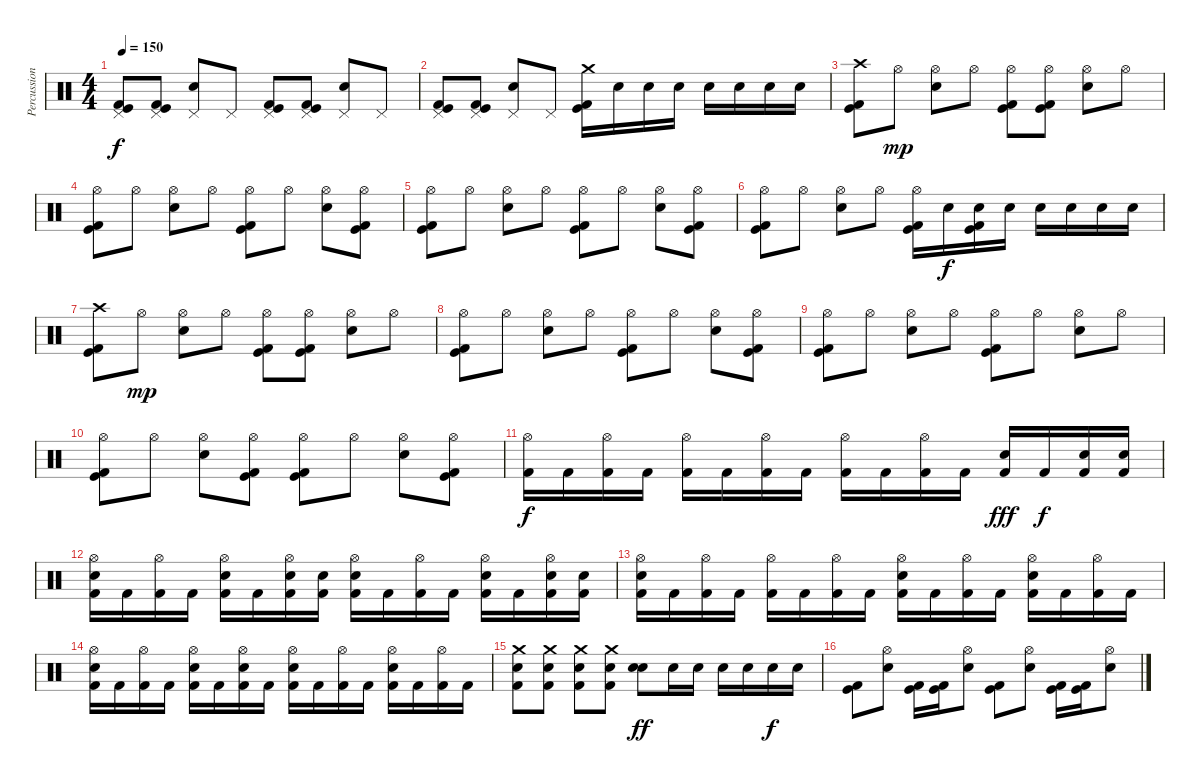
\track ("Percussions" "Percussion") {instrument percussion}
\staff {score}
\articulation defaults
\ts (4 4)
\tempo 150
\clef neutral
\ks c
("Pedal Hi-Hat (hit)" "Kick (hit)" "Kick (hit) 2").8{dy f} ("Pedal Hi-Hat (hit)" "Kick (hit)" "Kick (hit) 2").8 ("Pedal Hi-Hat (hit)" "Electric Snare (hit)").8 "Pedal Hi-Hat (hit)".8 ("Pedal Hi-Hat (hit)" "Kick (hit)" "Kick (hit) 2").8 ("Pedal Hi-Hat (hit)" "Kick (hit)" "Kick (hit) 2").8 ("Pedal Hi-Hat (hit)" "Electric Snare (hit)").8 "Pedal Hi-Hat (hit)".8 |
("Pedal Hi-Hat (hit)" "Kick (hit)" "Kick (hit) 2").8 ("Pedal Hi-Hat (hit)" "Kick (hit)" "Kick (hit) 2").8 ("Pedal Hi-Hat (hit)" "Electric Snare (hit)").8 "Pedal Hi-Hat (hit)".8 ("Crash medium (hit)" "Kick (hit)" "Kick (hit) 2").16 "Electric Snare (hit)".16 "Electric Snare (hit)".16 "Electric Snare (hit)".16 "Electric Snare (hit)".16 "Electric Snare (hit)".16 "Electric Snare (hit)".16 "Electric Snare (hit)".16 |
("Crash high (hit)" "Kick (hit)" "Kick (hit) 2").8 "Hi-Hat (open)".8{dy mp} ("Hi-Hat (open)" "Electric Snare (hit)").8 "Hi-Hat (open)".8 ("Hi-Hat (open)" "Kick (hit)" "Kick (hit) 2").8 ("Hi-Hat (open)" "Kick (hit)" "Kick (hit) 2").8 ("Hi-Hat (open)" "Electric Snare (hit)").8 "Hi-Hat (open)".8 |
("Hi-Hat (open)" "Kick (hit)" "Kick (hit) 2").8 "Hi-Hat (open)".8 ("Hi-Hat (open)" "Electric Snare (hit)").8 "Hi-Hat (open)".8 ("Hi-Hat (open)" "Kick (hit)" "Kick (hit) 2").8 "Hi-Hat (open)".8 ("Hi-Hat (open)" "Electric Snare (hit)").8 ("Hi-Hat (open)" "Kick (hit)" "Kick (hit) 2").8 |
("Hi-Hat (open)" "Kick (hit)" "Kick (hit) 2").8 "Hi-Hat (open)".8 ("Hi-Hat (open)" "Electric Snare (hit)").8 "Hi-Hat (open)".8 ("Hi-Hat (open)" "Kick (hit)" "Kick (hit) 2").8 "Hi-Hat (open)".8 ("Hi-Hat (open)" "Electric Snare (hit)").8 ("Hi-Hat (open)" "Kick (hit)" "Kick (hit) 2").8 |
("Hi-Hat (open)" "Kick (hit)" "Kick (hit) 2").8 "Hi-Hat (open)".8 ("Hi-Hat (open)" "Electric Snare (hit)").8 "Hi-Hat (open)".8 ("Hi-Hat (open)" "Kick (hit)" "Kick (hit) 2").16 "Electric Snare (hit)".16{dy f} ("Electric Snare (hit)" "Kick (hit)" "Kick (hit) 2").16 "Electric Snare (hit)".16 "Electric Snare (hit)".16 "Electric Snare (hit)".16 "Electric Snare (hit)".16 "Electric Snare (hit)".16 |
("Crash high (hit)" "Kick (hit)" "Kick (hit) 2").8 "Hi-Hat (open)".8{dy mp} ("Hi-Hat (open)" "Electric Snare (hit)").8 "Hi-Hat (open)".8 ("Hi-Hat (open)" "Kick (hit)" "Kick (hit) 2").8 ("Hi-Hat (open)" "Kick (hit)" "Kick (hit) 2").8 ("Hi-Hat (open)" "Electric Snare (hit)").8 "Hi-Hat (open)".8 |
("Hi-Hat (open)" "Kick (hit)" "Kick (hit) 2").8 "Hi-Hat (open)".8 ("Hi-Hat (open)" "Electric Snare (hit)").8 "Hi-Hat (open)".8 ("Hi-Hat (open)" "Kick (hit)" "Kick (hit) 2").8 "Hi-Hat (open)".8 ("Hi-Hat (open)" "Electric Snare (hit)").8 ("Hi-Hat (open)" "Kick (hit)" "Kick (hit) 2").8 |
("Hi-Hat (open)" "Kick (hit)" "Kick (hit) 2").8 "Hi-Hat (open)".8 ("Hi-Hat (open)" "Electric Snare (hit)").8 "Hi-Hat (open)".8 ("Hi-Hat (open)" "Kick (hit)" "Kick (hit) 2").8 "Hi-Hat (open)".8 ("Hi-Hat (open)" "Electric Snare (hit)").8 "Hi-Hat (open)".8 |
("Hi-Hat (open)" "Kick (hit)" "Kick (hit) 2").8 "Hi-Hat (open)".8 ("Hi-Hat (open)" "Electric Snare (hit)").8 ("Hi-Hat (open)" "Kick (hit)" "Kick (hit) 2").8 ("Hi-Hat (open)" "Kick (hit)" "Kick (hit) 2").8 "Hi-Hat (open)".8 ("Hi-Hat (open)" "Electric Snare (hit)").8 ("Hi-Hat (open)" "Kick (hit)" "Kick (hit) 2").8 |
("Hi-Hat (open)" "Kick (hit) 2").16{dy f} "Kick (hit) 2".16 ("Hi-Hat (open)" "Kick (hit) 2").16 "Kick (hit) 2".16 ("Hi-Hat (open)" "Kick (hit) 2").16 "Kick (hit) 2".16 ("Hi-Hat (open)" "Kick (hit) 2").16 "Kick (hit) 2".16 ("Hi-Hat (open)" "Kick (hit) 2").16 "Kick (hit) 2".16 ("Hi-Hat (open)" "Kick (hit) 2").16 "Kick (hit) 2".16 ("Electric Snare (hit)" "Kick (hit) 2").16{dy fff} "Kick (hit) 2".16{dy f} ("Electric Snare (hit)" "Kick (hit) 2").16 ("Electric Snare (hit)" "Kick (hit) 2").16 |
("Hi-Hat (open)" "Electric Snare (hit)" "Kick (hit) 2").16 "Kick (hit) 2".16 ("Hi-Hat (open)" "Kick (hit) 2").16 "Kick (hit) 2".16 ("Hi-Hat (open)" "Electric Snare (hit)" "Kick (hit) 2").16 "Kick (hit) 2".16 ("Hi-Hat (open)" "Electric Snare (hit)" "Kick (hit) 2").16 ("Electric Snare (hit)" "Kick (hit) 2").16 ("Hi-Hat (open)" "Electric Snare (hit)" "Kick (hit) 2").16 "Kick (hit) 2".16 ("Hi-Hat (open)" "Kick (hit) 2").16 "Kick (hit) 2".16 ("Hi-Hat (open)" "Electric Snare (hit)" "Kick (hit) 2").16 "Kick (hit) 2".16 ("Hi-Hat (open)" "Electric Snare (hit)" "Kick (hit) 2").16 ("Electric Snare (hit)" "Kick (hit) 2").16 |
("Hi-Hat (open)" "Electric Snare (hit)" "Kick (hit) 2").16 "Kick (hit) 2".16 ("Hi-Hat (open)" "Kick (hit) 2").16 "Kick (hit) 2".16 ("Hi-Hat (open)" "Kick (hit) 2").16 "Kick (hit) 2".16 ("Hi-Hat (open)" "Kick (hit) 2").16 "Kick (hit) 2".16 ("Hi-Hat (open)" "Electric Snare (hit)" "Kick (hit) 2").16 "Kick (hit) 2".16 ("Hi-Hat (open)" "Kick (hit) 2").16 "Kick (hit) 2".16 ("Hi-Hat (open)" "Electric Snare (hit)" "Kick (hit) 2").16 "Kick (hit) 2".16 ("Hi-Hat (open)" "Kick (hit) 2").16 "Kick (hit) 2".16 |
("Hi-Hat (open)" "Electric Snare (hit)" "Kick (hit) 2").16 "Kick (hit) 2".16 ("Hi-Hat (open)" "Kick (hit) 2").16 "Kick (hit) 2".16 ("Hi-Hat (open)" "Electric Snare (hit)" "Kick (hit) 2").16 "Kick (hit) 2".16 ("Hi-Hat (open)" "Electric Snare (hit)" "Kick (hit) 2").16 "Kick (hit) 2".16 ("Hi-Hat (open)" "Electric Snare (hit)" "Kick (hit) 2").16 "Kick (hit) 2".16 ("Hi-Hat (open)" "Kick (hit) 2").16 "Kick (hit) 2".16 ("Hi-Hat (open)" "Electric Snare (hit)" "Kick (hit) 2").16 "Kick (hit) 2".16 ("Hi-Hat (open)" "Kick (hit) 2").16 "Kick (hit) 2".16 |
("Crash medium (hit)" "Electric Snare (hit)" "Kick (hit) 2").8 ("Crash medium (hit)" "Electric Snare (hit)" "Kick (hit) 2").8 ("Crash medium (hit)" "Electric Snare (hit)" "Kick (hit) 2").8 ("Crash medium (hit)" "Electric Snare (hit)" "Kick (hit) 2").8 ("Electric Snare (hit)" "Electric Snare (hit)").8{bd 240 dy ff} "Electric Snare (hit)".16 "Electric Snare (hit)".16 "Electric Snare (hit)".16 "Electric Snare (hit)".16 "Electric Snare (hit)".16{dy f} "Electric Snare (hit)".16 |
("Kick (hit)" "Kick (hit) 2").8 ("Hi-Hat (open)" "Electric Snare (hit)").8 ("Kick (hit)" "Kick (hit) 2").16 ("Kick (hit)" "Kick (hit) 2").16 ("Hi-Hat (open)" "Electric Snare (hit)").8 ("Kick (hit)" "Kick (hit) 2").8 ("Hi-Hat (open)" "Electric Snare (hit)").8 ("Kick (hit)" "Kick (hit) 2").16 ("Kick (hit)" "Kick (hit) 2").16 ("Hi-Hat (open)" "Electric Snare (hit)").8
